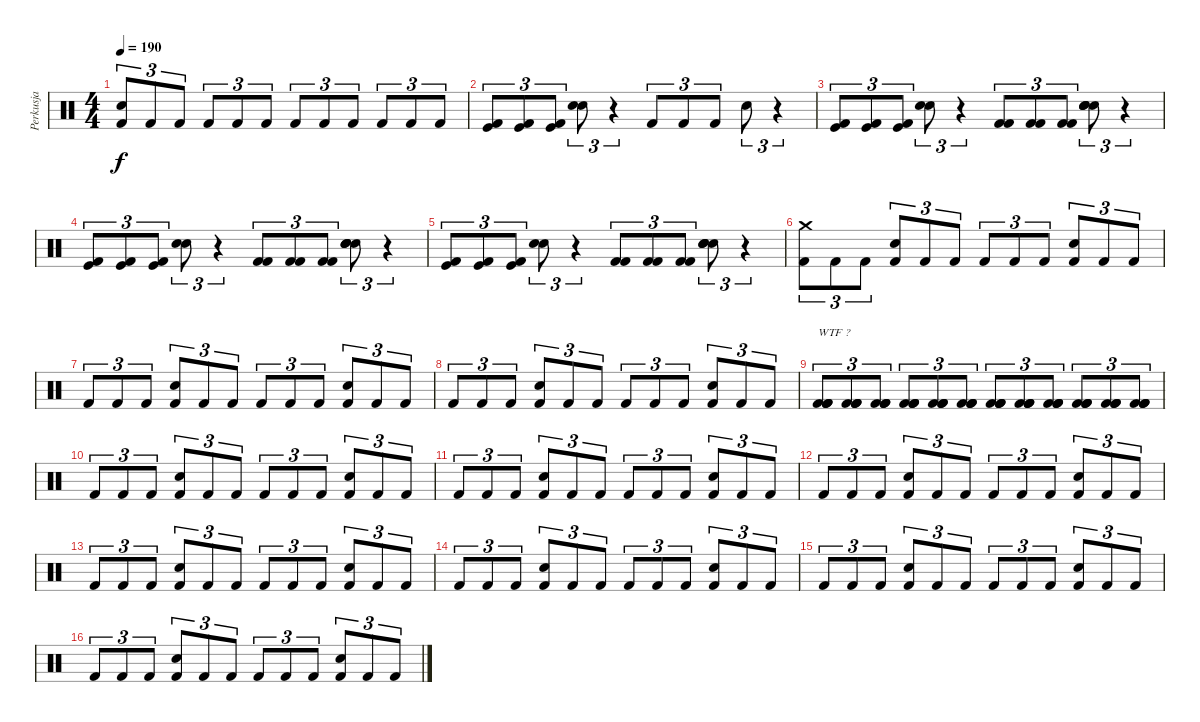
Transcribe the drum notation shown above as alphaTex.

\track ("Perkusja" "Perkusja") {instrument percussion}
\staff {score}
\articulation defaults
\ts (4 4)
\tempo 190
\clef neutral
\ks c
("Kick (hit) 2" "Electric Snare (hit)").8{tu (3 2) dy f balance 16} "Kick (hit) 2".8{tu (3 2) balance 14} "Kick (hit) 2".8{tu (3 2) balance 6} "Kick (hit) 2".8{tu (3 2)} "Kick (hit) 2".8{tu (3 2) balance 7} "Kick (hit) 2".8{tu (3 2) balance 8} "Kick (hit) 2".8{tu (3 2)} "Kick (hit) 2".8{tu (3 2) balance 9} "Kick (hit) 2".8{tu (3 2)} "Kick (hit) 2".8{tu (3 2) balance 4} "Kick (hit) 2".8{tu (3 2) balance 2} "Kick (hit) 2".8{tu (3 2) balance 0} |
("Kick (hit)" "Kick (hit) 2").8{tu (3 2) balance 8} ("Kick (hit)" "Kick (hit) 2").8{tu (3 2)} ("Kick (hit)" "Kick (hit) 2").8{tu (3 2)} ("Electric Snare (hit)" "Electric Snare (hit)").8{tu (3 2)} r.4{tu (3 2)} "Kick (hit) 2".8{tu (3 2)} "Kick (hit) 2".8{tu (3 2)} "Kick (hit) 2".8{tu (3 2)} "Electric Snare (hit)".8{tu (3 2)} r.4{tu (3 2)} |
("Kick (hit)" "Kick (hit) 2").8{tu (3 2)} ("Kick (hit)" "Kick (hit) 2").8{tu (3 2)} ("Kick (hit)" "Kick (hit) 2").8{tu (3 2)} ("Electric Snare (hit)" "Electric Snare (hit)").8{tu (3 2)} r.4{tu (3 2)} ("Kick (hit) 2" "Kick (hit) 2").8{tu (3 2)} ("Kick (hit) 2" "Kick (hit) 2").8{tu (3 2)} ("Kick (hit) 2" "Kick (hit) 2").8{tu (3 2)} ("Electric Snare (hit)" "Electric Snare (hit)" "Electric Snare (hit)" "Electric Snare (hit)").8{tu (3 2)} r.4{tu (3 2)} |
("Kick (hit)" "Kick (hit) 2").8{tu (3 2)} ("Kick (hit)" "Kick (hit) 2").8{tu (3 2)} ("Kick (hit)" "Kick (hit) 2").8{tu (3 2)} ("Electric Snare (hit)" "Electric Snare (hit)").8{tu (3 2)} r.4{tu (3 2)} ("Kick (hit) 2" "Kick (hit) 2").8{tu (3 2)} ("Kick (hit) 2" "Kick (hit) 2").8{tu (3 2)} ("Kick (hit) 2" "Kick (hit) 2").8{tu (3 2)} ("Electric Snare (hit)" "Electric Snare (hit)" "Electric Snare (hit)" "Electric Snare (hit)").8{tu (3 2)} r.4{tu (3 2)} |
("Kick (hit)" "Kick (hit) 2").8{tu (3 2)} ("Kick (hit)" "Kick (hit) 2").8{tu (3 2)} ("Kick (hit)" "Kick (hit) 2").8{tu (3 2)} ("Electric Snare (hit)" "Electric Snare (hit)").8{tu (3 2)} r.4{tu (3 2)} ("Kick (hit) 2" "Kick (hit) 2").8{tu (3 2)} ("Kick (hit) 2" "Kick (hit) 2").8{tu (3 2)} ("Kick (hit) 2" "Kick (hit) 2").8{tu (3 2)} ("Electric Snare (hit)" "Electric Snare (hit)" "Electric Snare (hit)" "Electric Snare (hit)").8{tu (3 2)} r.4{tu (3 2)} |
("Crash medium (hit)" "Kick (hit) 2").8{tu (3 2)} "Kick (hit) 2".8{tu (3 2)} "Kick (hit) 2".8{tu (3 2)} ("Electric Snare (hit)" "Kick (hit) 2").8{tu (3 2)} "Kick (hit) 2".8{tu (3 2)} "Kick (hit) 2".8{tu (3 2)} "Kick (hit) 2".8{tu (3 2)} "Kick (hit) 2".8{tu (3 2)} "Kick (hit) 2".8{tu (3 2)} ("Electric Snare (hit)" "Kick (hit) 2").8{tu (3 2)} "Kick (hit) 2".8{tu (3 2)} "Kick (hit) 2".8{tu (3 2)} |
"Kick (hit) 2".8{tu (3 2)} "Kick (hit) 2".8{tu (3 2)} "Kick (hit) 2".8{tu (3 2)} ("Electric Snare (hit)" "Kick (hit) 2").8{tu (3 2)} "Kick (hit) 2".8{tu (3 2)} "Kick (hit) 2".8{tu (3 2)} "Kick (hit) 2".8{tu (3 2)} "Kick (hit) 2".8{tu (3 2)} "Kick (hit) 2".8{tu (3 2)} ("Electric Snare (hit)" "Kick (hit) 2").8{tu (3 2)} "Kick (hit) 2".8{tu (3 2)} "Kick (hit) 2".8{tu (3 2)} |
"Kick (hit) 2".8{tu (3 2)} "Kick (hit) 2".8{tu (3 2)} "Kick (hit) 2".8{tu (3 2)} ("Electric Snare (hit)" "Kick (hit) 2").8{tu (3 2)} "Kick (hit) 2".8{tu (3 2)} "Kick (hit) 2".8{tu (3 2)} "Kick (hit) 2".8{tu (3 2)} "Kick (hit) 2".8{tu (3 2)} "Kick (hit) 2".8{tu (3 2)} ("Electric Snare (hit)" "Kick (hit) 2").8{tu (3 2)} "Kick (hit) 2".8{tu (3 2)} "Kick (hit) 2".8{tu (3 2)} |
("Kick (hit) 2" "Kick (hit) 2" "Kick (hit) 2" "Kick (hit) 2").8{tu (3 2) txt "WTF ?" balance 16} ("Kick (hit) 2" "Kick (hit) 2" "Kick (hit) 2" "Kick (hit) 2").8{tu (3 2) balance 14} ("Kick (hit) 2" "Kick (hit) 2" "Kick (hit) 2" "Kick (hit) 2").8{tu (3 2) balance 12} ("Kick (hit) 2" "Kick (hit) 2" "Kick (hit) 2" "Kick (hit) 2").8{tu (3 2) balance 11} ("Kick (hit) 2" "Kick (hit) 2" "Kick (hit) 2" "Kick (hit) 2").8{tu (3 2)} ("Kick (hit) 2" "Kick (hit) 2" "Kick (hit) 2" "Kick (hit) 2").8{tu (3 2)} ("Kick (hit) 2" "Kick (hit) 2" "Kick (hit) 2" "Kick (hit) 2").8{tu (3 2)} ("Kick (hit) 2" "Kick (hit) 2" "Kick (hit) 2" "Kick (hit) 2").8{tu (3 2) balance 7} ("Kick (hit) 2" "Kick (hit) 2" "Kick (hit) 2" "Kick (hit) 2").8{tu (3 2) balance 4} ("Kick (hit) 2" "Kick (hit) 2" "Kick (hit) 2" "Kick (hit) 2").8{tu (3 2) balance 3} ("Kick (hit) 2" "Kick (hit) 2" "Kick (hit) 2" "Kick (hit) 2").8{tu (3 2) balance 1} ("Kick (hit) 2" "Kick (hit) 2" "Kick (hit) 2" "Kick (hit) 2").8{tu (3 2) balance 0} |
"Kick (hit) 2".8{tu (3 2) balance 8} "Kick (hit) 2".8{tu (3 2)} "Kick (hit) 2".8{tu (3 2)} ("Electric Snare (hit)" "Kick (hit) 2").8{tu (3 2)} "Kick (hit) 2".8{tu (3 2)} "Kick (hit) 2".8{tu (3 2)} "Kick (hit) 2".8{tu (3 2)} "Kick (hit) 2".8{tu (3 2)} "Kick (hit) 2".8{tu (3 2)} ("Electric Snare (hit)" "Kick (hit) 2").8{tu (3 2)} "Kick (hit) 2".8{tu (3 2)} "Kick (hit) 2".8{tu (3 2)} |
"Kick (hit) 2".8{tu (3 2)} "Kick (hit) 2".8{tu (3 2)} "Kick (hit) 2".8{tu (3 2)} ("Electric Snare (hit)" "Kick (hit) 2").8{tu (3 2)} "Kick (hit) 2".8{tu (3 2)} "Kick (hit) 2".8{tu (3 2)} "Kick (hit) 2".8{tu (3 2)} "Kick (hit) 2".8{tu (3 2)} "Kick (hit) 2".8{tu (3 2)} ("Electric Snare (hit)" "Kick (hit) 2").8{tu (3 2)} "Kick (hit) 2".8{tu (3 2)} "Kick (hit) 2".8{tu (3 2)} |
"Kick (hit) 2".8{tu (3 2)} "Kick (hit) 2".8{tu (3 2)} "Kick (hit) 2".8{tu (3 2)} ("Electric Snare (hit)" "Kick (hit) 2").8{tu (3 2)} "Kick (hit) 2".8{tu (3 2)} "Kick (hit) 2".8{tu (3 2)} "Kick (hit) 2".8{tu (3 2)} "Kick (hit) 2".8{tu (3 2)} "Kick (hit) 2".8{tu (3 2)} ("Electric Snare (hit)" "Kick (hit) 2").8{tu (3 2)} "Kick (hit) 2".8{tu (3 2)} "Kick (hit) 2".8{tu (3 2)} |
"Kick (hit) 2".8{tu (3 2)} "Kick (hit) 2".8{tu (3 2)} "Kick (hit) 2".8{tu (3 2)} ("Electric Snare (hit)" "Kick (hit) 2").8{tu (3 2)} "Kick (hit) 2".8{tu (3 2)} "Kick (hit) 2".8{tu (3 2)} "Kick (hit) 2".8{tu (3 2)} "Kick (hit) 2".8{tu (3 2)} "Kick (hit) 2".8{tu (3 2)} ("Electric Snare (hit)" "Kick (hit) 2").8{tu (3 2)} "Kick (hit) 2".8{tu (3 2)} "Kick (hit) 2".8{tu (3 2)} |
"Kick (hit) 2".8{tu (3 2)} "Kick (hit) 2".8{tu (3 2)} "Kick (hit) 2".8{tu (3 2)} ("Electric Snare (hit)" "Kick (hit) 2").8{tu (3 2)} "Kick (hit) 2".8{tu (3 2)} "Kick (hit) 2".8{tu (3 2)} "Kick (hit) 2".8{tu (3 2)} "Kick (hit) 2".8{tu (3 2)} "Kick (hit) 2".8{tu (3 2)} ("Electric Snare (hit)" "Kick (hit) 2").8{tu (3 2)} "Kick (hit) 2".8{tu (3 2)} "Kick (hit) 2".8{tu (3 2)} |
"Kick (hit) 2".8{tu (3 2)} "Kick (hit) 2".8{tu (3 2)} "Kick (hit) 2".8{tu (3 2)} ("Electric Snare (hit)" "Kick (hit) 2").8{tu (3 2)} "Kick (hit) 2".8{tu (3 2)} "Kick (hit) 2".8{tu (3 2)} "Kick (hit) 2".8{tu (3 2)} "Kick (hit) 2".8{tu (3 2)} "Kick (hit) 2".8{tu (3 2)} ("Electric Snare (hit)" "Kick (hit) 2").8{tu (3 2)} "Kick (hit) 2".8{tu (3 2)} "Kick (hit) 2".8{tu (3 2)} |
"Kick (hit) 2".8{tu (3 2)} "Kick (hit) 2".8{tu (3 2)} "Kick (hit) 2".8{tu (3 2)} ("Electric Snare (hit)" "Kick (hit) 2").8{tu (3 2)} "Kick (hit) 2".8{tu (3 2)} "Kick (hit) 2".8{tu (3 2)} "Kick (hit) 2".8{tu (3 2)} "Kick (hit) 2".8{tu (3 2)} "Kick (hit) 2".8{tu (3 2)} ("Electric Snare (hit)" "Kick (hit) 2").8{tu (3 2)} "Kick (hit) 2".8{tu (3 2)} "Kick (hit) 2".8{tu (3 2)}
